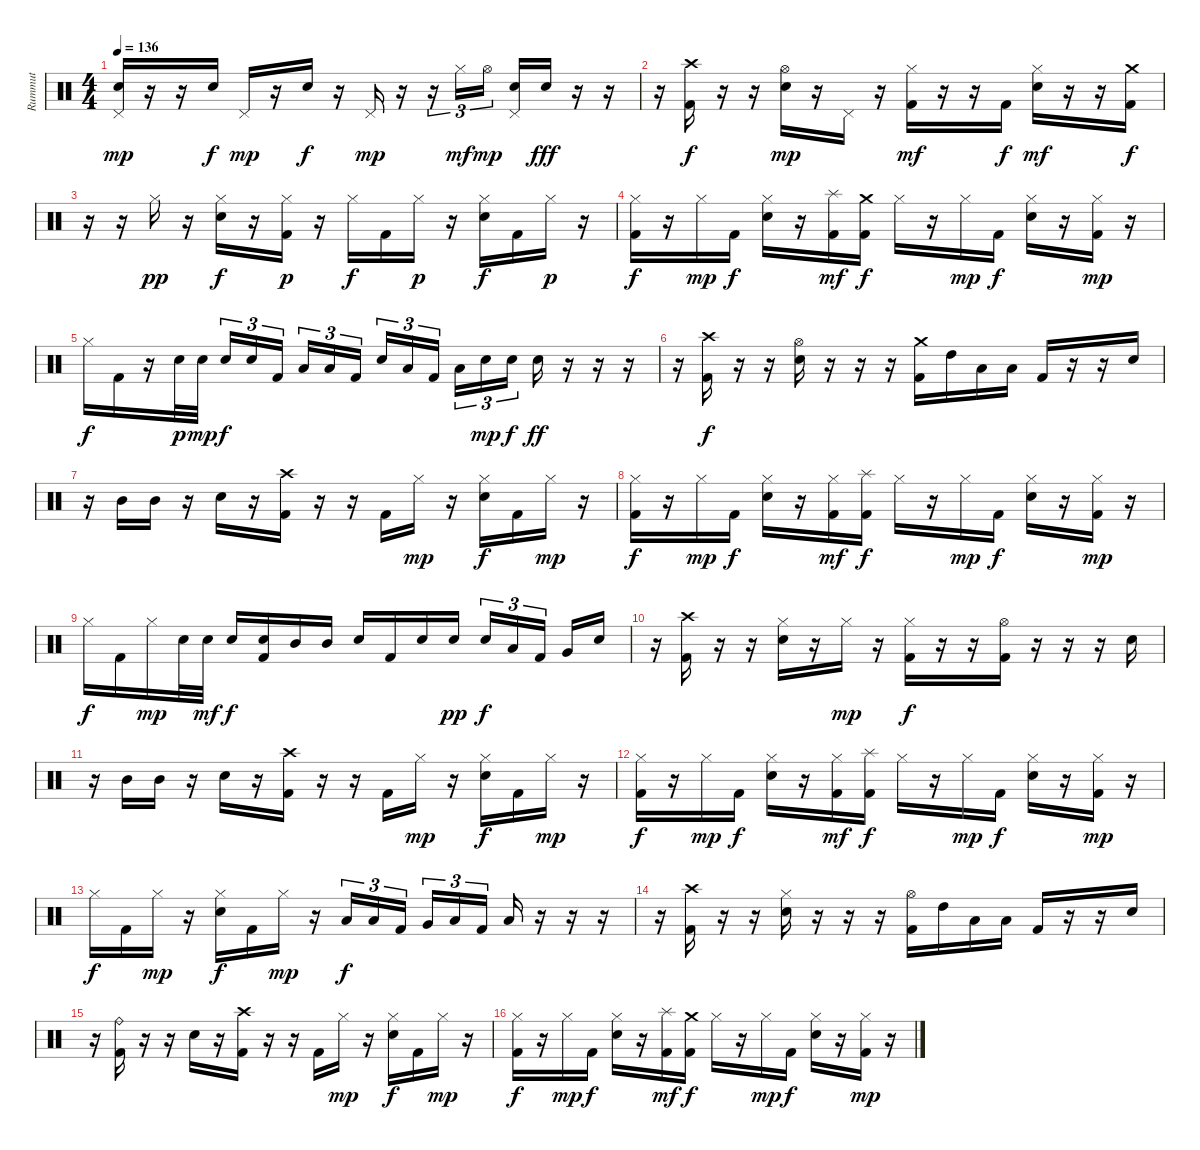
\track ("Rummut" "Rummut") {instrument percussion}
\staff {score}
\articulation defaults
\ts (4 4)
\tempo 136
\clef neutral
\ks c
("Pedal Hi-Hat (hit)" "Electric Snare (hit)").16{dy mp} r.16 r.16 "Electric Snare (hit)".16{dy f} "Pedal Hi-Hat (hit)".16{dy mp} r.16 "Electric Snare (hit)".16{dy f} r.16 "Pedal Hi-Hat (hit)".16{dy mp} r.16 r.16{tu (3 2)} "Hi-Hat (closed)".16{tu (3 2) dy mf} "Hi-Hat (open)".16{tu (3 2) dy mp} ("Pedal Hi-Hat (hit)" "Electric Snare (hit)").16 "Electric Snare (hit)".16{dy fff} r.16 r.16 |
r.16 ("Crash high (hit)" "Kick (hit) 2").16{dy f} r.16 r.16 ("Hi-Hat (open)" "Electric Snare (hit)").16{dy mp} r.16 "Pedal Hi-Hat (hit)".16 r.16 ("Hi-Hat (closed)" "Kick (hit) 2").16{dy mf} r.16 r.16 "Kick (hit) 2".16{dy f} ("Hi-Hat (closed)" "Electric Snare (hit)").16{dy mf} r.16 r.16 ("Crash medium (hit)" "Kick (hit) 2").16{dy f} |
r.16 r.16 "Hi-Hat (closed)".16{dy pp} r.16 ("Hi-Hat (closed)" "Electric Snare (hit)").16{dy f} r.16 ("Hi-Hat (closed)" "Kick (hit) 2").16{dy p} r.16 "Hi-Hat (closed)".16{dy f} "Kick (hit) 2".16 "Hi-Hat (closed)".16{dy p} r.16 ("Hi-Hat (closed)" "Electric Snare (hit)").16{dy f} "Kick (hit) 2".16 "Hi-Hat (closed)".16{dy p} r.16 |
("Hi-Hat (closed)" "Kick (hit) 2").16{dy f} r.16 "Hi-Hat (closed)".16{dy mp} "Kick (hit) 2".16{dy f} ("Hi-Hat (closed)" "Electric Snare (hit)").16 r.16 ("Splash (hit)" "Kick (hit) 2").16{dy mf} ("Crash medium (hit)" "Kick (hit) 2").16{dy f} "Hi-Hat (closed)".16 r.16 "Hi-Hat (closed)".16{dy mp} "Kick (hit) 2".16{dy f} ("Hi-Hat (closed)" "Electric Snare (hit)").16 r.16 ("Hi-Hat (closed)" "Kick (hit) 2").16{dy mp} r.16 |
"Hi-Hat (closed)".16{dy f} "Kick (hit) 2".16 r.16 "Electric Snare (hit)".32{dy p} "Electric Snare (hit)".32{dy mp} "Electric Snare (hit)".16{tu (3 2) dy f} "Electric Snare (hit)".16{tu (3 2)} "Kick (hit) 2".16{tu (3 2)} "Low Tom (hit)".16{tu (3 2)} "Low Tom (hit)".16{tu (3 2)} "Kick (hit) 2".16{tu (3 2)} "Electric Snare (hit)".16{tu (3 2)} "Low Tom (hit)".16{tu (3 2)} "Kick (hit) 2".16{tu (3 2)} "Low Tom (hit)".16{tu (3 2)} "Electric Snare (hit)".16{tu (3 2) dy mp} "Electric Snare (hit)".16{tu (3 2) dy f} "Electric Snare (hit)".16{dy ff} r.16 r.16 r.16 |
r.16 ("Crash high (hit)" "Kick (hit) 2").16{dy f} r.16 r.16 ("Hi-Hat (open)" "Electric Snare (hit)").16 r.16 r.16 r.16 ("Crash medium (hit)" "Kick (hit) 2").16 "High Tom (hit)".16 "Low Tom (hit)".16 "Low Tom (hit)".16 "Kick (hit) 2".16 r.16 r.16 "Electric Snare (hit)".16 |
r.16 "Mid Tom (hit)".16 "Mid Tom (hit)".16 r.16 "Electric Snare (hit)".16 r.16 ("Crash high (hit)" "Kick (hit) 2").16 r.16 r.16 "Kick (hit) 2".16 "Hi-Hat (closed)".16{dy mp} r.16 ("Hi-Hat (closed)" "Electric Snare (hit)").16{dy f} "Kick (hit) 2".16 "Hi-Hat (closed)".16{dy mp} r.16 |
("Hi-Hat (closed)" "Kick (hit) 2").16{dy f} r.16 "Hi-Hat (closed)".16{dy mp} "Kick (hit) 2".16{dy f} ("Hi-Hat (closed)" "Electric Snare (hit)").16 r.16 ("Hi-Hat (closed)" "Kick (hit) 2").16{dy mf} ("Splash (hit)" "Kick (hit) 2").16{dy f} "Hi-Hat (closed)".16 r.16 "Hi-Hat (closed)".16{dy mp} "Kick (hit) 2".16{dy f} ("Hi-Hat (closed)" "Electric Snare (hit)").16 r.16 ("Hi-Hat (closed)" "Kick (hit) 2").16{dy mp} r.16 |
"Hi-Hat (closed)".16{dy f} "Kick (hit) 2".16 "Hi-Hat (closed)".16{dy mp} "Electric Snare (hit)".32 "Electric Snare (hit)".32{dy mf} "Electric Snare (hit)".16{dy f} ("Electric Snare (hit)" "Kick (hit) 2").16 "Mid Tom (hit)".16 "Mid Tom (hit)".16 "Electric Snare (hit)".16 "Kick (hit) 2".16 "Electric Snare (hit)".16 "Electric Snare (hit)".16{dy pp} "Electric Snare (hit)".16{tu (3 2) dy f} "Low Tom (hit)".16{tu (3 2)} "Kick (hit) 2".16{tu (3 2)} "Very Low Tom (hit)".16 "Electric Snare (hit)".16 |
r.16 ("Crash high (hit)" "Kick (hit) 2").16 r.16 r.16 ("Hi-Hat (closed)" "Electric Snare (hit)").16 r.16 "Hi-Hat (closed)".16{dy mp} r.16 ("Hi-Hat (closed)" "Kick (hit) 2").16{dy f} r.16 r.16 ("Hi-Hat (open)" "Kick (hit) 2").16 r.16 r.16 r.16 "Electric Snare (hit)".16 |
r.16 "Mid Tom (hit)".16 "Mid Tom (hit)".16 r.16 "Electric Snare (hit)".16 r.16 ("Crash high (hit)" "Kick (hit) 2").16 r.16 r.16 "Kick (hit) 2".16 "Hi-Hat (closed)".16{dy mp} r.16 ("Hi-Hat (closed)" "Electric Snare (hit)").16{dy f} "Kick (hit) 2".16 "Hi-Hat (closed)".16{dy mp} r.16 |
("Hi-Hat (closed)" "Kick (hit) 2").16{dy f} r.16 "Hi-Hat (closed)".16{dy mp} "Kick (hit) 2".16{dy f} ("Hi-Hat (closed)" "Electric Snare (hit)").16 r.16 ("Hi-Hat (closed)" "Kick (hit) 2").16{dy mf} ("Splash (hit)" "Kick (hit) 2").16{dy f} "Hi-Hat (closed)".16 r.16 "Hi-Hat (closed)".16{dy mp} "Kick (hit) 2".16{dy f} ("Hi-Hat (closed)" "Electric Snare (hit)").16 r.16 ("Hi-Hat (closed)" "Kick (hit) 2").16{dy mp} r.16 |
"Hi-Hat (closed)".16{dy f} "Kick (hit) 2".16 "Hi-Hat (closed)".16{dy mp} r.16 ("Hi-Hat (closed)" "Electric Snare (hit)").16{dy f} "Kick (hit) 2".16 "Hi-Hat (closed)".16{dy mp} r.16 "Low Tom (hit)".16{tu (3 2) dy f} "Low Floor Tom (hit)".16{tu (3 2)} "Kick (hit) 2".16{tu (3 2)} "Very Low Tom (hit)".16{tu (3 2)} "Low Floor Tom (hit)".16{tu (3 2)} "Kick (hit) 2".16{tu (3 2)} "Low Floor Tom (hit)".16 r.16 r.16 r.16 |
r.16 ("Crash high (hit)" "Kick (hit) 2").16 r.16 r.16 ("Hi-Hat (closed)" "Electric Snare (hit)").16 r.16 r.16 r.16 ("Hi-Hat (open)" "Kick (hit) 2").16 "High Tom (hit)".16 "Low Tom (hit)".16 "Low Tom (hit)".16 "Kick (hit) 2".16 r.16 r.16 "Electric Snare (hit)".16 |
r.16 ("Ride (bell)" "Kick (hit) 2").16 r.16 r.16 "Electric Snare (hit)".16 r.16 ("Crash high (hit)" "Kick (hit) 2").16 r.16 r.16 "Kick (hit) 2".16 "Hi-Hat (closed)".16{dy mp} r.16 ("Hi-Hat (closed)" "Electric Snare (hit)").16{dy f} "Kick (hit) 2".16 "Hi-Hat (closed)".16{dy mp} r.16 |
("Hi-Hat (closed)" "Kick (hit) 2").16{dy f} r.16 "Hi-Hat (closed)".16{dy mp} "Kick (hit) 2".16{dy f} ("Hi-Hat (closed)" "Electric Snare (hit)").16 r.16 ("Splash (hit)" "Kick (hit) 2").16{dy mf} ("Crash medium (hit)" "Kick (hit) 2").16{dy f} "Hi-Hat (closed)".16 r.16 "Hi-Hat (closed)".16{dy mp} "Kick (hit) 2".16{dy f} ("Hi-Hat (closed)" "Electric Snare (hit)").16 r.16 ("Hi-Hat (closed)" "Kick (hit) 2").16{dy mp} r.16
